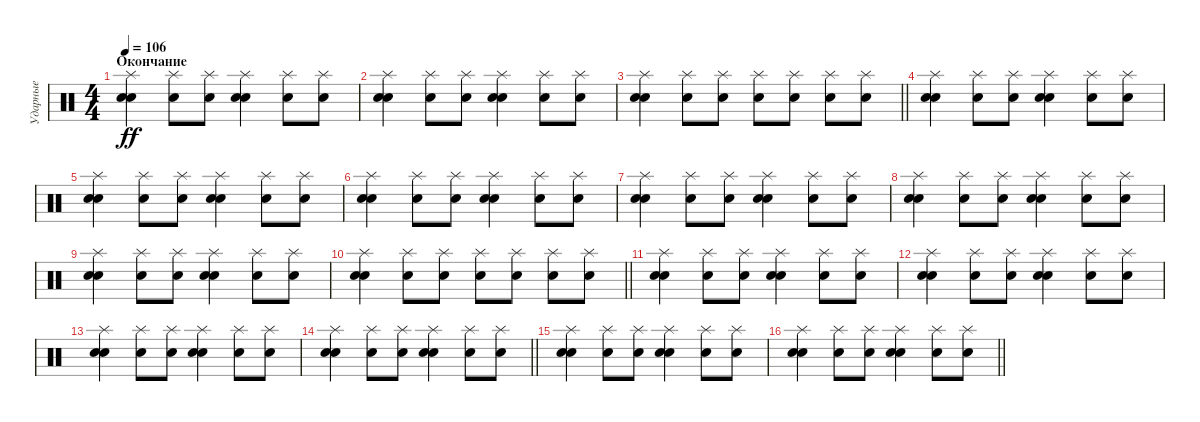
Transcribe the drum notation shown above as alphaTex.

\track ("Ударные" "Ударные") {instrument percussion}
\staff {score}
\articulation defaults
\ts (4 4)
\section ("" "Окончание")
\tempo 106
\clef neutral
\ks c
("Snare (hit) 2" "Electric Snare (hit)" "Splash (hit)").4{dy ff} ("Electric Snare (hit)" "Splash (hit)").8 ("Electric Snare (hit)" "Splash (hit)").8 ("Snare (hit) 2" "Electric Snare (hit)" "Splash (hit)").4 ("Electric Snare (hit)" "Splash (hit)").8 ("Electric Snare (hit)" "Splash (hit)").8 |
("Snare (hit) 2" "Electric Snare (hit)" "Splash (hit)").4 ("Electric Snare (hit)" "Splash (hit)").8 ("Electric Snare (hit)" "Splash (hit)").8 ("Snare (hit) 2" "Electric Snare (hit)" "Splash (hit)").4 ("Electric Snare (hit)" "Splash (hit)").8 ("Electric Snare (hit)" "Splash (hit)").8 |
\barLineRight lightlight
("Snare (hit) 2" "Electric Snare (hit)" "Splash (hit)").4 ("Electric Snare (hit)" "Splash (hit)").8 ("Electric Snare (hit)" "Splash (hit)").8 ("Electric Snare (hit)" "Splash (hit)").8 ("Electric Snare (hit)" "Splash (hit)").8 ("Electric Snare (hit)" "Splash (hit)").8 ("Electric Snare (hit)" "Splash (hit)").8 |
("Snare (hit) 2" "Electric Snare (hit)" "Splash (hit)").4 ("Electric Snare (hit)" "Splash (hit)").8 ("Electric Snare (hit)" "Splash (hit)").8 ("Snare (hit) 2" "Electric Snare (hit)" "Splash (hit)").4 ("Electric Snare (hit)" "Splash (hit)").8 ("Electric Snare (hit)" "Splash (hit)").8 |
("Snare (hit) 2" "Electric Snare (hit)" "Splash (hit)").4 ("Electric Snare (hit)" "Splash (hit)").8 ("Electric Snare (hit)" "Splash (hit)").8 ("Snare (hit) 2" "Electric Snare (hit)" "Splash (hit)").4 ("Electric Snare (hit)" "Splash (hit)").8 ("Electric Snare (hit)" "Splash (hit)").8 |
("Snare (hit) 2" "Electric Snare (hit)" "Splash (hit)").4 ("Electric Snare (hit)" "Splash (hit)").8 ("Electric Snare (hit)" "Splash (hit)").8 ("Snare (hit) 2" "Electric Snare (hit)" "Splash (hit)").4 ("Electric Snare (hit)" "Splash (hit)").8 ("Electric Snare (hit)" "Splash (hit)").8 |
("Snare (hit) 2" "Electric Snare (hit)" "Splash (hit)").4 ("Electric Snare (hit)" "Splash (hit)").8 ("Electric Snare (hit)" "Splash (hit)").8 ("Snare (hit) 2" "Electric Snare (hit)" "Splash (hit)").4 ("Electric Snare (hit)" "Splash (hit)").8 ("Electric Snare (hit)" "Splash (hit)").8 |
("Snare (hit) 2" "Electric Snare (hit)" "Splash (hit)").4 ("Electric Snare (hit)" "Splash (hit)").8 ("Electric Snare (hit)" "Splash (hit)").8 ("Snare (hit) 2" "Electric Snare (hit)" "Splash (hit)").4 ("Electric Snare (hit)" "Splash (hit)").8 ("Electric Snare (hit)" "Splash (hit)").8 |
("Snare (hit) 2" "Electric Snare (hit)" "Splash (hit)").4 ("Electric Snare (hit)" "Splash (hit)").8 ("Electric Snare (hit)" "Splash (hit)").8 ("Snare (hit) 2" "Electric Snare (hit)" "Splash (hit)").4 ("Electric Snare (hit)" "Splash (hit)").8 ("Electric Snare (hit)" "Splash (hit)").8 |
\barLineRight lightlight
("Snare (hit) 2" "Electric Snare (hit)" "Splash (hit)").4 ("Electric Snare (hit)" "Splash (hit)").8 ("Electric Snare (hit)" "Splash (hit)").8 ("Electric Snare (hit)" "Splash (hit)").8 ("Electric Snare (hit)" "Splash (hit)").8 ("Electric Snare (hit)" "Splash (hit)").8 ("Electric Snare (hit)" "Splash (hit)").8 |
("Snare (hit) 2" "Electric Snare (hit)" "Splash (hit)").4 ("Electric Snare (hit)" "Splash (hit)").8 ("Electric Snare (hit)" "Splash (hit)").8 ("Snare (hit) 2" "Electric Snare (hit)" "Splash (hit)").4 ("Electric Snare (hit)" "Splash (hit)").8 ("Electric Snare (hit)" "Splash (hit)").8 |
("Snare (hit) 2" "Electric Snare (hit)" "Splash (hit)").4 ("Electric Snare (hit)" "Splash (hit)").8 ("Electric Snare (hit)" "Splash (hit)").8 ("Snare (hit) 2" "Electric Snare (hit)" "Splash (hit)").4 ("Electric Snare (hit)" "Splash (hit)").8 ("Electric Snare (hit)" "Splash (hit)").8 |
("Snare (hit) 2" "Electric Snare (hit)" "Splash (hit)").4 ("Electric Snare (hit)" "Splash (hit)").8 ("Electric Snare (hit)" "Splash (hit)").8 ("Snare (hit) 2" "Electric Snare (hit)" "Splash (hit)").4 ("Electric Snare (hit)" "Splash (hit)").8 ("Electric Snare (hit)" "Splash (hit)").8 |
\barLineRight lightlight
("Snare (hit) 2" "Electric Snare (hit)" "Splash (hit)").4 ("Electric Snare (hit)" "Splash (hit)").8 ("Electric Snare (hit)" "Splash (hit)").8 ("Snare (hit) 2" "Electric Snare (hit)" "Splash (hit)").4 ("Electric Snare (hit)" "Splash (hit)").8 ("Electric Snare (hit)" "Splash (hit)").8 |
("Snare (hit) 2" "Electric Snare (hit)" "Splash (hit)").4 ("Electric Snare (hit)" "Splash (hit)").8 ("Electric Snare (hit)" "Splash (hit)").8 ("Snare (hit) 2" "Electric Snare (hit)" "Splash (hit)").4 ("Electric Snare (hit)" "Splash (hit)").8 ("Electric Snare (hit)" "Splash (hit)").8 |
\barLineRight lightlight
("Snare (hit) 2" "Electric Snare (hit)" "Splash (hit)").4 ("Electric Snare (hit)" "Splash (hit)").8 ("Electric Snare (hit)" "Splash (hit)").8 ("Snare (hit) 2" "Electric Snare (hit)" "Splash (hit)").4 ("Electric Snare (hit)" "Splash (hit)").8 ("Electric Snare (hit)" "Splash (hit)").8
